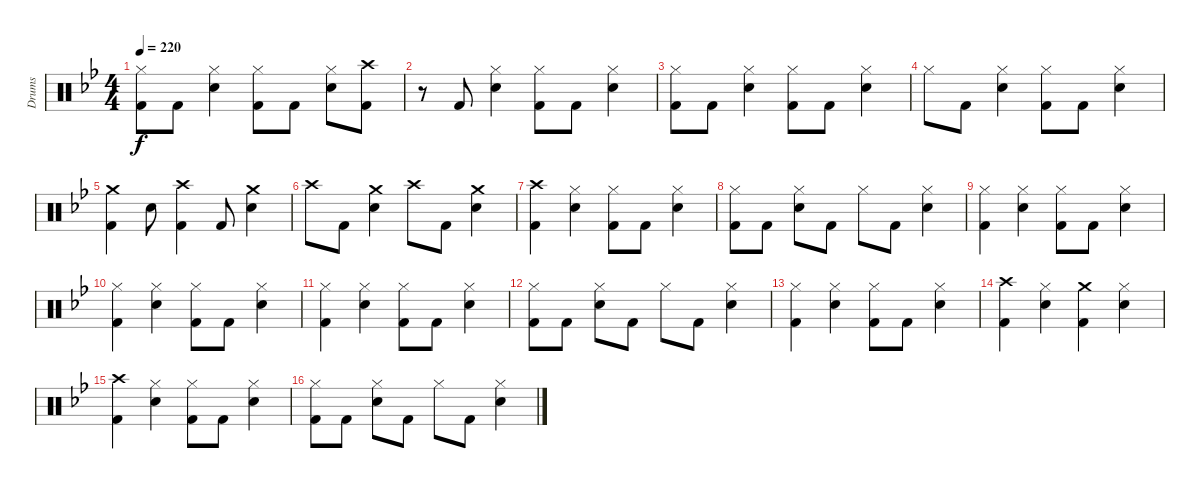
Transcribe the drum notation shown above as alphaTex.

\track ("Drums" "Drums") {instrument percussion}
\staff {score}
\articulation defaults
\ts (4 4)
\tempo 220
\clef neutral
\ks gminor
("Kick (hit) 2" "Hi-Hat (closed)").8{dy f} "Kick (hit) 2".8 ("Snare (hit) 2" "Hi-Hat (closed)").4 ("Kick (hit) 2" "Hi-Hat (closed)").8 "Kick (hit) 2".8 ("Snare (hit) 2" "Hi-Hat (closed)").8 ("Kick (hit) 2" "Crash high (hit)").8 |
r.8 "Kick (hit) 2".8 ("Snare (hit) 2" "Hi-Hat (closed)").4 ("Kick (hit) 2" "Hi-Hat (closed)").8 "Kick (hit) 2".8 ("Snare (hit) 2" "Hi-Hat (closed)").4 |
("Kick (hit) 2" "Hi-Hat (closed)").8 "Kick (hit) 2".8 ("Snare (hit) 2" "Hi-Hat (closed)").4 ("Kick (hit) 2" "Hi-Hat (closed)").8 "Kick (hit) 2".8 ("Snare (hit) 2" "Hi-Hat (closed)").4 |
"Hi-Hat (closed)".8 "Kick (hit) 2".8 ("Snare (hit) 2" "Hi-Hat (closed)").4 ("Kick (hit) 2" "Hi-Hat (closed)").8 "Kick (hit) 2".8 ("Snare (hit) 2" "Hi-Hat (closed)").4 |
("Kick (hit) 2" "Crash medium (hit)").4 "Snare (hit) 2".8 ("Kick (hit) 2" "Crash high (hit)").4 "Kick (hit) 2".8 ("Snare (hit) 2" "Crash medium (hit)").4 |
"Crash high (hit)".8 "Kick (hit) 2".8 ("Snare (hit) 2" "Crash medium (hit)").4 "Crash high (hit)".8 "Kick (hit) 2".8 ("Snare (hit) 2" "Crash medium (hit)").4 |
("Kick (hit) 2" "Crash high (hit)").4 ("Snare (hit) 2" "Hi-Hat (closed)").4 ("Kick (hit) 2" "Hi-Hat (closed)").8 "Kick (hit) 2".8 ("Snare (hit) 2" "Hi-Hat (closed)").4 |
("Kick (hit) 2" "Hi-Hat (closed)").8 "Kick (hit) 2".8 ("Snare (hit) 2" "Hi-Hat (closed)").8 "Kick (hit) 2".8 "Hi-Hat (closed)".8 "Kick (hit) 2".8 ("Snare (hit) 2" "Hi-Hat (closed)").4 |
("Kick (hit) 2" "Hi-Hat (closed)").4 ("Snare (hit) 2" "Hi-Hat (closed)").4 ("Kick (hit) 2" "Hi-Hat (closed)").8 "Kick (hit) 2".8 ("Snare (hit) 2" "Hi-Hat (closed)").4 |
("Kick (hit) 2" "Hi-Hat (closed)").4 ("Snare (hit) 2" "Hi-Hat (closed)").4 ("Kick (hit) 2" "Hi-Hat (closed)").8 "Kick (hit) 2".8 ("Snare (hit) 2" "Hi-Hat (closed)").4 |
("Kick (hit) 2" "Hi-Hat (closed)").4 ("Snare (hit) 2" "Hi-Hat (closed)").4 ("Kick (hit) 2" "Hi-Hat (closed)").8 "Kick (hit) 2".8 ("Snare (hit) 2" "Hi-Hat (closed)").4 |
("Kick (hit) 2" "Hi-Hat (closed)").8 "Kick (hit) 2".8 ("Snare (hit) 2" "Hi-Hat (closed)").8 "Kick (hit) 2".8 "Hi-Hat (closed)".8 "Kick (hit) 2".8 ("Snare (hit) 2" "Hi-Hat (closed)").4 |
("Kick (hit) 2" "Hi-Hat (closed)").4 ("Snare (hit) 2" "Hi-Hat (closed)").4 ("Kick (hit) 2" "Hi-Hat (closed)").8 "Kick (hit) 2".8 ("Snare (hit) 2" "Hi-Hat (closed)").4 |
("Kick (hit) 2" "Crash high (hit)").4 ("Snare (hit) 2" "Hi-Hat (closed)").4 ("Kick (hit) 2" "Crash medium (hit)").4 ("Snare (hit) 2" "Hi-Hat (closed)").4 |
("Kick (hit) 2" "Crash high (hit)").4 ("Snare (hit) 2" "Hi-Hat (closed)").4 ("Kick (hit) 2" "Hi-Hat (closed)").8 "Kick (hit) 2".8 ("Snare (hit) 2" "Hi-Hat (closed)").4 |
("Kick (hit) 2" "Hi-Hat (closed)").8 "Kick (hit) 2".8 ("Snare (hit) 2" "Hi-Hat (closed)").8 "Kick (hit) 2".8 "Hi-Hat (closed)".8 "Kick (hit) 2".8 ("Snare (hit) 2" "Hi-Hat (closed)").4
